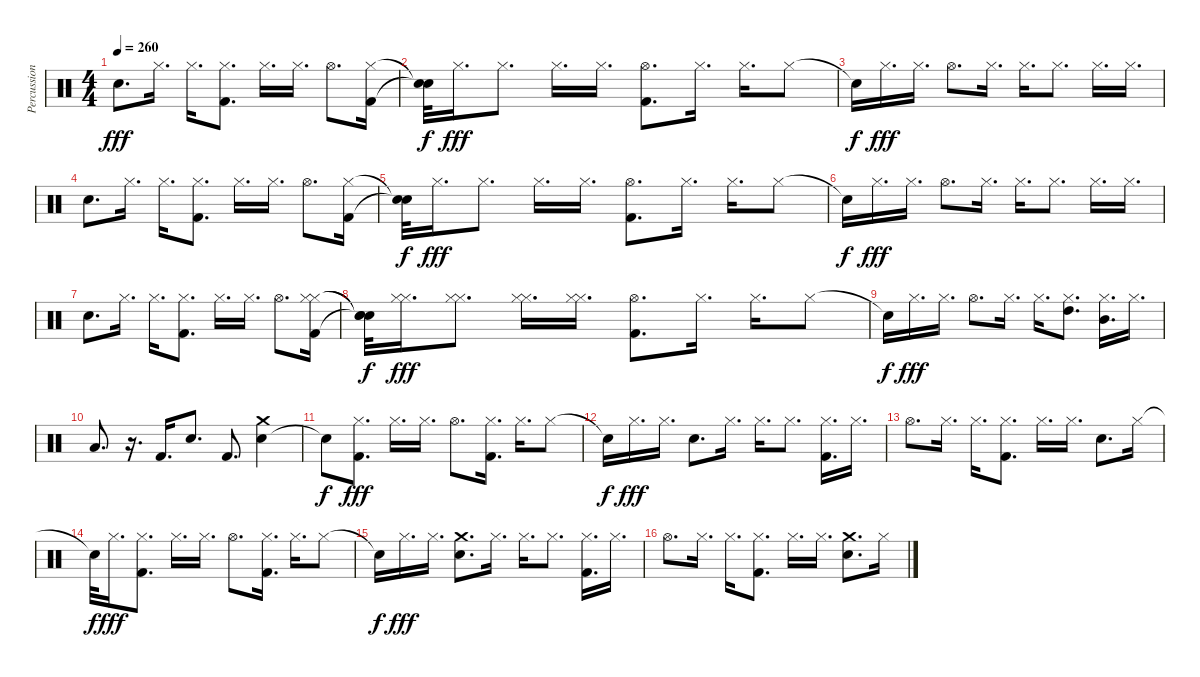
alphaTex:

\track ("Percussion" "Percussion") {instrument percussion}
\staff {score}
\articulation defaults
\ts (4 4)
\tempo 260
\clef neutral
\ks c "Electric Snare (hit)".8{d dy fff} "Hi-Hat (closed)".16{d} "Hi-Hat (closed)".16{d}
("Hi-Hat (closed)" "Kick (hit) 2").8{d} "Hi-Hat (closed)".16{d} "Hi-Hat (closed)".16{d} "Hi-Hat (open)".8{d} ("Hi-Hat (closed)" "Kick (hit) 2").16 |
("Snare (hit)"{t} "Snare (hit)"{t}).32{dy f} "Hi-Hat (closed)".16{d dy fff} "Hi-Hat (closed)".8{d} "Hi-Hat (closed)".16{d} "Hi-Hat (closed)".16{d} ("Hi-Hat (open)" "Kick (hit) 2").8{d} "Hi-Hat (closed)".16{d} "Hi-Hat (closed)".16{d} "Hi-Hat (closed)".8 |
"Snare (hit)"{t}.16{dy f} "Hi-Hat (closed)".16{d dy fff} "Hi-Hat (closed)".16{d} "Hi-Hat (open)".8{d} "Hi-Hat (closed)".16{d} "Hi-Hat (closed)".16{d} "Hi-Hat (closed)".8{d} "Hi-Hat (closed)".16{d} "Hi-Hat (closed)".16{d} |
"Electric Snare (hit)".8{d} "Hi-Hat (closed)".16{d} "Hi-Hat (closed)".16{d} ("Hi-Hat (closed)" "Kick (hit) 2").8{d} "Hi-Hat (closed)".16{d} "Hi-Hat (closed)".16{d} "Hi-Hat (open)".8{d} ("Hi-Hat (closed)" "Kick (hit) 2").16 |
("Snare (hit)"{t} "Snare (hit)"{t}).32{dy f} "Hi-Hat (closed)".16{d dy fff} "Hi-Hat (closed)".8{d} "Hi-Hat (closed)".16{d} "Hi-Hat (closed)".16{d} ("Hi-Hat (open)" "Kick (hit) 2").8{d} "Hi-Hat (closed)".16{d} "Hi-Hat (closed)".16{d} "Hi-Hat (closed)".8 |
"Snare (hit)"{t}.16{dy f} "Hi-Hat (closed)".16{d dy fff} "Hi-Hat (closed)".16{d} "Hi-Hat (open)".8{d} "Hi-Hat (closed)".16{d} "Hi-Hat (closed)".16{d} "Hi-Hat (closed)".8{d} "Hi-Hat (closed)".16{d} "Hi-Hat (closed)".16{d} |
"Electric Snare (hit)".8{d} "Hi-Hat (closed)".16{d} "Hi-Hat (closed)".16{d} ("Hi-Hat (closed)" "Kick (hit) 2").8{d} "Hi-Hat (closed)".16{d} "Hi-Hat (closed)".16{d} "Hi-Hat (open)".8{d} ("Hi-Hat (closed)" "Hi-Hat (closed)" "Kick (hit) 2").16 |
("Snare (hit)"{t} "Snare (hit)"{t} "Snare (hit)"{t}).32{dy f} ("Hi-Hat (closed)" "Hi-Hat (closed)").16{d dy fff} ("Hi-Hat (closed)" "Hi-Hat (closed)").8{d} ("Hi-Hat (closed)" "Hi-Hat (closed)").16{d} ("Hi-Hat (closed)" "Hi-Hat (closed)").16{d} ("Hi-Hat (open)" "Kick (hit) 2").8{d} "Hi-Hat (closed)".16{d} "Hi-Hat (closed)".16{d} "Hi-Hat (closed)".8 |
"Snare (hit)"{t}.16{dy f} "Hi-Hat (closed)".16{d dy fff} "Hi-Hat (closed)".16{d} "Hi-Hat (open)".8{d} "Hi-Hat (closed)".16{d} "Hi-Hat (closed)".16{d} ("Hi-Hat (closed)" "High Tom (hit)").8{d} ("Hi-Hat (closed)" "Mid Tom (hit)").16{d} "Hi-Hat (closed)".16{d} |
"Low Tom (hit)".8{d} r.16{d} "Kick (hit) 2".16{d} "Electric Snare (hit)".8{d} "Kick (hit) 2".8{d} ("Electric Snare (hit)" "Crash medium (hit)").4 |
"Snare (hit)"{t}.8{dy f} ("Kick (hit) 2" "Hi-Hat (closed)").8{d dy fff} "Hi-Hat (closed)".16{d} "Hi-Hat (closed)".16{d} "Hi-Hat (open)".8{d} ("Kick (hit) 2" "Hi-Hat (closed)").16{d} "Hi-Hat (closed)".16{d} "Hi-Hat (closed)".8 |
"Snare (hit)"{t}.16{dy f} "Hi-Hat (closed)".16{d dy fff} "Hi-Hat (closed)".16{d} "Electric Snare (hit)".8{d} "Hi-Hat (closed)".16{d} "Hi-Hat (closed)".16{d} "Hi-Hat (closed)".8{d} ("Kick (hit) 2" "Hi-Hat (closed)").16{d} "Hi-Hat (closed)".16{d} |
"Hi-Hat (open)".8{d} "Hi-Hat (closed)".16{d} "Hi-Hat (closed)".16{d} ("Kick (hit) 2" "Hi-Hat (closed)").8{d} "Hi-Hat (closed)".16{d} "Hi-Hat (closed)".16{d} "Electric Snare (hit)".8{d} "Hi-Hat (closed)".16 |
"Snare (hit)"{t}.32{dy f} "Hi-Hat (closed)".16{d dy fff} ("Kick (hit) 2" "Hi-Hat (closed)").8{d} "Hi-Hat (closed)".16{d} "Hi-Hat (closed)".16{d} "Hi-Hat (open)".8{d} ("Kick (hit) 2" "Hi-Hat (closed)").16{d} "Hi-Hat (closed)".16{d} "Hi-Hat (closed)".8 |
"Snare (hit)"{t}.16{dy f} "Hi-Hat (closed)".16{d dy fff} "Hi-Hat (closed)".16{d} ("Electric Snare (hit)" "Crash medium (hit)").8{d} "Hi-Hat (closed)".16{d} "Hi-Hat (closed)".16{d} "Hi-Hat (closed)".8{d} ("Kick (hit) 2" "Hi-Hat (closed)").16{d} "Hi-Hat (closed)".16{d} |
"Hi-Hat (open)".8{d} "Hi-Hat (closed)".16{d} "Hi-Hat (closed)".16{d} ("Kick (hit) 2" "Hi-Hat (closed)").8{d} "Hi-Hat (closed)".16{d} "Hi-Hat (closed)".16{d} ("Electric Snare (hit)" "Crash medium (hit)").8{d} "Hi-Hat (closed)".16
